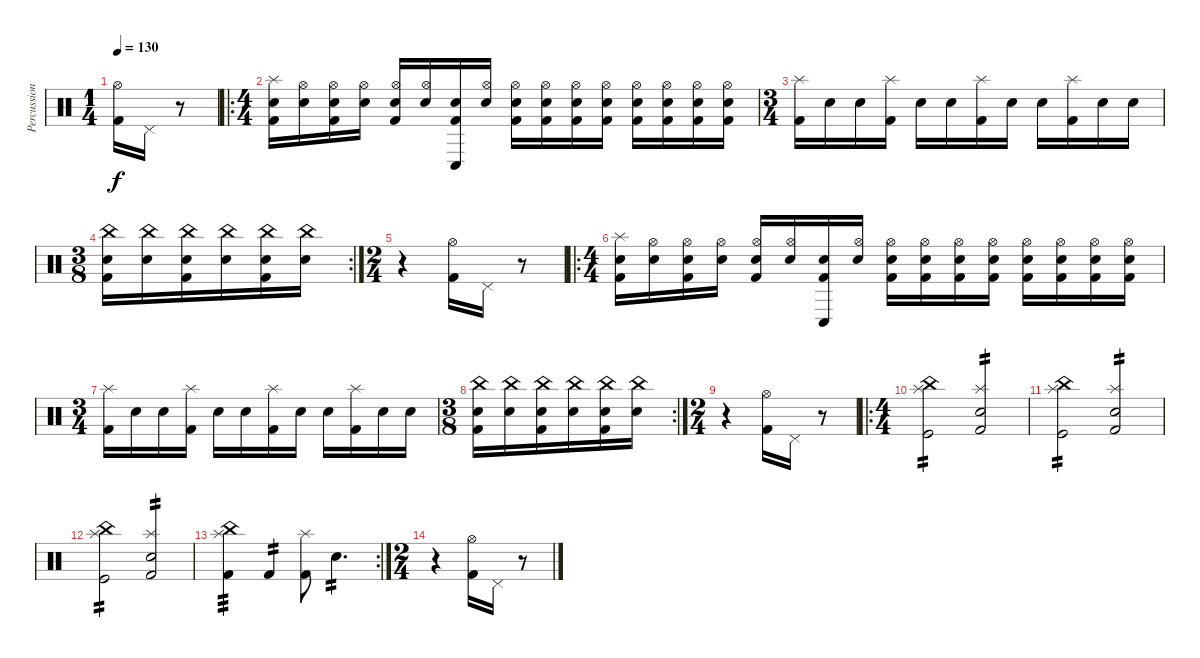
\track ("Percussion" "Percussion") {instrument percussion}
\staff {score}
\articulation defaults
\ts (1 4)
\tempo 130
\clef neutral
\ks c
("Hi-Hat (open)" "Kick (hit) 2").16{dy f} "Pedal Hi-Hat (hit)".16 r.8 |
\ro
\ts (4 4)
("Splash (hit)" "Electric Snare (hit)" "Kick (hit) 2").16 ("Hi-Hat (open)" "Electric Snare (hit)").16 ("Hi-Hat (open)" "Electric Snare (hit)" "Kick (hit) 2").16 ("Hi-Hat (open)" "Electric Snare (hit)").16 ("Hi-Hat (open)" "Electric Snare (hit)" "Kick (hit) 2").16 ("Hi-Hat (open)" "Electric Snare (hit)").16 ("Conga low (hit)" "Electric Snare (hit)" "Kick (hit) 2").16 ("Hi-Hat (open)" "Electric Snare (hit)").16 ("Hi-Hat (open)" "Electric Snare (hit)" "Kick (hit) 2").16 ("Hi-Hat (open)" "Electric Snare (hit)" "Kick (hit) 2").16 ("Hi-Hat (open)" "Electric Snare (hit)" "Kick (hit) 2").16 ("Hi-Hat (open)" "Electric Snare (hit)" "Kick (hit) 2").16 ("Hi-Hat (open)" "Electric Snare (hit)" "Kick (hit) 2").16 ("Hi-Hat (open)" "Electric Snare (hit)" "Kick (hit) 2").16 ("Hi-Hat (open)" "Electric Snare (hit)" "Kick (hit) 2").16 ("Hi-Hat (open)" "Electric Snare (hit)" "Kick (hit) 2").16 |
\ts (3 4)
("Kick (hit) 2" "Splash (hit)").16 "Electric Snare (hit)".16 "Electric Snare (hit)".16 ("Kick (hit) 2" "Splash (hit)").16 "Electric Snare (hit)".16 "Electric Snare (hit)".16 ("Kick (hit) 2" "Splash (hit)").16 "Electric Snare (hit)".16 "Electric Snare (hit)".16 ("Kick (hit) 2" "Splash (hit)").16 "Electric Snare (hit)".16 "Electric Snare (hit)".16 |
\rc 2
\ts (3 8)
("China (hit)" "Electric Snare (hit)" "Kick (hit) 2").16 ("China (hit)" "Electric Snare (hit)").16 ("China (hit)" "Electric Snare (hit)" "Kick (hit) 2").16 ("China (hit)" "Electric Snare (hit)").16 ("China (hit)" "Electric Snare (hit)" "Kick (hit) 2").16 ("China (hit)" "Electric Snare (hit)").16 |
\ts (2 4)
r.4 ("Hi-Hat (open)" "Kick (hit) 2").16 "Pedal Hi-Hat (hit)".16 r.8 |
\ro
\ts (4 4)
("Splash (hit)" "Electric Snare (hit)" "Kick (hit) 2").16 ("Hi-Hat (open)" "Electric Snare (hit)").16 ("Hi-Hat (open)" "Electric Snare (hit)" "Kick (hit) 2").16 ("Hi-Hat (open)" "Electric Snare (hit)").16 ("Hi-Hat (open)" "Electric Snare (hit)" "Kick (hit) 2").16 ("Hi-Hat (open)" "Electric Snare (hit)").16 ("Conga low (hit)" "Electric Snare (hit)" "Kick (hit) 2").16 ("Hi-Hat (open)" "Electric Snare (hit)").16 ("Hi-Hat (open)" "Electric Snare (hit)" "Kick (hit) 2").16 ("Hi-Hat (open)" "Electric Snare (hit)" "Kick (hit) 2").16 ("Hi-Hat (open)" "Electric Snare (hit)" "Kick (hit) 2").16 ("Hi-Hat (open)" "Electric Snare (hit)" "Kick (hit) 2").16 ("Hi-Hat (open)" "Electric Snare (hit)" "Kick (hit) 2").16 ("Hi-Hat (open)" "Electric Snare (hit)" "Kick (hit) 2").16 ("Hi-Hat (open)" "Electric Snare (hit)" "Kick (hit) 2").16 ("Hi-Hat (open)" "Electric Snare (hit)" "Kick (hit) 2").16 |
\ts (3 4)
("Kick (hit) 2" "Splash (hit)").16 "Electric Snare (hit)".16 "Electric Snare (hit)".16 ("Kick (hit) 2" "Splash (hit)").16 "Electric Snare (hit)".16 "Electric Snare (hit)".16 ("Kick (hit) 2" "Splash (hit)").16 "Electric Snare (hit)".16 "Electric Snare (hit)".16 ("Kick (hit) 2" "Splash (hit)").16 "Electric Snare (hit)".16 "Electric Snare (hit)".16 |
\rc 2
\ts (3 8)
("China (hit)" "Electric Snare (hit)" "Kick (hit) 2").16 ("China (hit)" "Electric Snare (hit)").16 ("China (hit)" "Electric Snare (hit)" "Kick (hit) 2").16 ("China (hit)" "Electric Snare (hit)").16 ("China (hit)" "Electric Snare (hit)" "Kick (hit) 2").16 ("China (hit)" "Electric Snare (hit)").16 |
\ts (2 4)
r.4 ("Hi-Hat (open)" "Kick (hit) 2").16 "Pedal Hi-Hat (hit)".16 r.8 |
\ro
\ts (4 4)
("Splash (hit)" "China (hit)" "Kick (hit)").2{tp 2} ("Splash (hit)" "Electric Snare (hit)" "Kick (hit) 2").2{tp 2} |
("Splash (hit)" "China (hit)" "Kick (hit)").2{tp 2} ("Splash (hit)" "Electric Snare (hit)" "Kick (hit) 2").2{tp 2} |
("Splash (hit)" "China (hit)" "Kick (hit)").2{tp 2} ("Splash (hit)" "Electric Snare (hit)" "Kick (hit) 2").2{tp 2} |
\rc 2
("Splash (hit)" "China (hit)" "Kick (hit) 2").4{tp 3} "Kick (hit) 2".4{tp 2} ("Splash (hit)" "Kick (hit) 2").8 "Electric Snare (hit)".4{d tp 2} |
\ts (2 4)
r.4 ("Hi-Hat (open)" "Kick (hit) 2").16 "Pedal Hi-Hat (hit)".16 r.8
